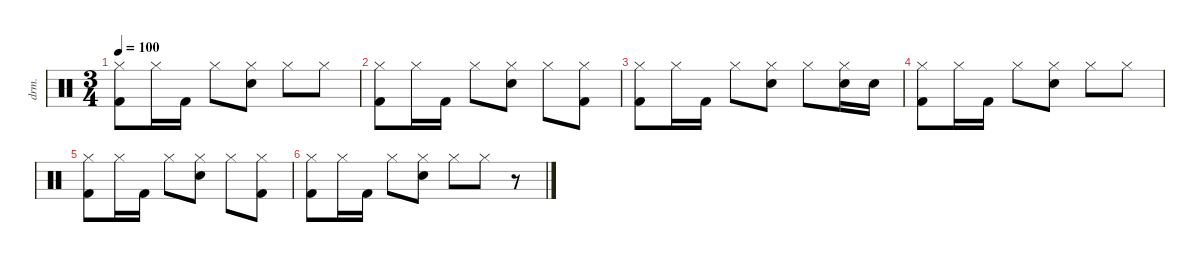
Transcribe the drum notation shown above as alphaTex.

\defaultSystemsLayout 4
\hideDynamics
\bracketExtendMode nobrackets
\otherSystemsTrackNameOrientation horizontal
\track ("Drumkit" "drm.") {instrument percussion}
\staff {score}
\articulation defaults
\ts (3 4)
\beaming (8 2 2 2)
\tempo 100
\clef neutral
\ks c
("Hi-Hat (closed)" "Kick (hit) 2").8{dy mf beam Down} "Hi-Hat (closed)".16{beam Down} "Kick (hit) 2".16{beam Down} "Hi-Hat (closed)".8{beam Down} ("Hi-Hat (closed)" "Snare (hit) 2").8{beam Down} "Hi-Hat (closed)".8{beam Down} "Hi-Hat (closed)".8{beam Down} |
("Hi-Hat (closed)" "Kick (hit) 2").8{beam Down} "Hi-Hat (closed)".16{beam Down} "Kick (hit) 2".16{beam Down} "Hi-Hat (closed)".8{beam Down} ("Hi-Hat (closed)" "Snare (hit) 2").8{beam Down} "Hi-Hat (closed)".8{beam Down} ("Hi-Hat (closed)" "Kick (hit) 2").8{beam Down} |
("Hi-Hat (closed)" "Kick (hit) 2").8{beam Down} "Hi-Hat (closed)".16{beam Down} "Kick (hit) 2".16{beam Down} "Hi-Hat (closed)".8{beam Down} ("Hi-Hat (closed)" "Snare (hit) 2").8{beam Down} "Hi-Hat (closed)".8{beam Down} ("Hi-Hat (closed)" "Snare (hit) 2").16{beam Down} "Snare (hit) 2".16{beam Down} |
("Hi-Hat (closed)" "Kick (hit) 2").8{beam Down} "Hi-Hat (closed)".16{beam Down} "Kick (hit) 2".16{beam Down} "Hi-Hat (closed)".8{beam Down} ("Hi-Hat (closed)" "Snare (hit) 2").8{beam Down} "Hi-Hat (closed)".8{beam Down} "Hi-Hat (closed)".8{beam Down} |
("Hi-Hat (closed)" "Kick (hit) 2").8{beam Down} "Hi-Hat (closed)".16{beam Down} "Kick (hit) 2".16{beam Down} "Hi-Hat (closed)".8{beam Down} ("Hi-Hat (closed)" "Snare (hit) 2").8{beam Down} "Hi-Hat (closed)".8{beam Down} ("Hi-Hat (closed)" "Kick (hit) 2").8{beam Down} |
("Hi-Hat (closed)" "Kick (hit) 2").8{beam Down} "Hi-Hat (closed)".16{beam Down} "Kick (hit) 2".16{beam Down} "Hi-Hat (closed)".8{beam Down} ("Hi-Hat (closed)" "Snare (hit) 2").8{beam Down} "Hi-Hat (closed)".8{beam Down} "Hi-Hat (closed)".8{beam Down} r.8{beam Down}
